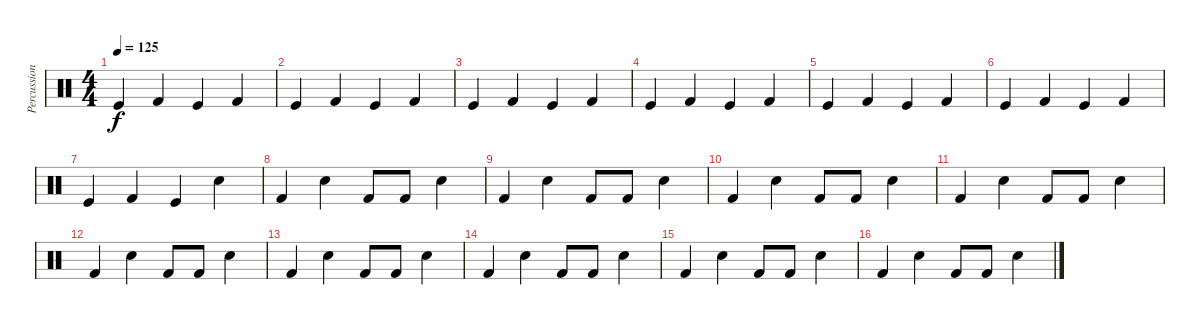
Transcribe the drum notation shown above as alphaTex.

\track ("Percussion" "Percussion") {instrument percussion}
\staff {score}
\articulation defaults
\ts (4 4)
\tempo 125
\clef neutral
\ks c "Kick (hit)".4{dy f} "Kick (hit) 2".4 "Kick (hit)".4 "Kick (hit) 2".4
|
"Kick (hit)".4 "Kick (hit) 2".4 "Kick (hit)".4 "Kick (hit) 2".4 |
"Kick (hit)".4 "Kick (hit) 2".4 "Kick (hit)".4 "Kick (hit) 2".4 |
"Kick (hit)".4 "Kick (hit) 2".4 "Kick (hit)".4 "Kick (hit) 2".4 |
"Kick (hit)".4 "Kick (hit) 2".4 "Kick (hit)".4 "Kick (hit) 2".4 |
"Kick (hit)".4 "Kick (hit) 2".4 "Kick (hit)".4 "Kick (hit) 2".4 |
"Kick (hit)".4 "Kick (hit) 2".4 "Kick (hit)".4 "Snare (hit) 2".4 |
"Kick (hit) 2".4 "Snare (hit) 2".4 "Kick (hit) 2".8 "Kick (hit) 2".8 "Snare (hit) 2".4 |
"Kick (hit) 2".4 "Snare (hit) 2".4 "Kick (hit) 2".8 "Kick (hit) 2".8 "Snare (hit) 2".4 |
"Kick (hit) 2".4 "Snare (hit) 2".4 "Kick (hit) 2".8 "Kick (hit) 2".8 "Snare (hit) 2".4 |
"Kick (hit) 2".4 "Snare (hit) 2".4 "Kick (hit) 2".8 "Kick (hit) 2".8 "Snare (hit) 2".4 |
"Kick (hit) 2".4 "Snare (hit) 2".4 "Kick (hit) 2".8 "Kick (hit) 2".8 "Snare (hit) 2".4 |
"Kick (hit) 2".4 "Snare (hit) 2".4 "Kick (hit) 2".8 "Kick (hit) 2".8 "Snare (hit) 2".4 |
"Kick (hit) 2".4 "Snare (hit) 2".4 "Kick (hit) 2".8 "Kick (hit) 2".8 "Snare (hit) 2".4 |
"Kick (hit) 2".4 "Snare (hit) 2".4 "Kick (hit) 2".8 "Kick (hit) 2".8 "Snare (hit) 2".4 |
"Kick (hit) 2".4 "Snare (hit) 2".4 "Kick (hit) 2".8 "Kick (hit) 2".8 "Snare (hit) 2".4
